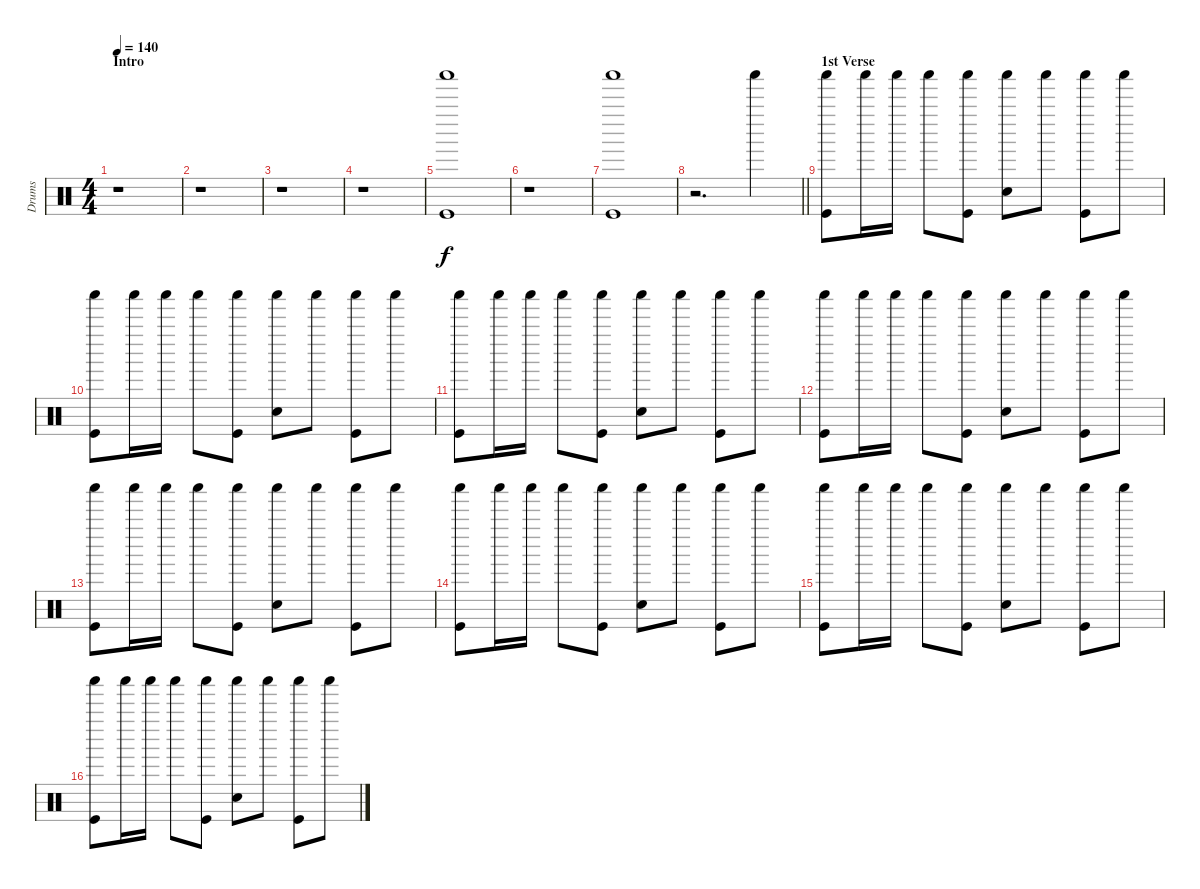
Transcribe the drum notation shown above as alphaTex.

\track ("Drums" "Drums") {instrument percussion}
\staff {score}
\articulation defaults
\ts (4 4)
\section ("" "Intro")
\tempo 140
\clef neutral
\ks c
r.1{dy f} |
r.1 |
r.1 |
r.1 |
("Shaker (hit)" "Kick (hit)").1 |
r.1 |
("Shaker (hit)" "Kick (hit)").1 |
\barLineRight lightlight
r.2{d} "Shaker (hit)".4 |
\section ("" "1st Verse")
("Shaker (hit)" "Kick (hit)").8 "Shaker (hit)".16 "Shaker (hit)".16 "Shaker (hit)".8 ("Shaker (hit)" "Kick (hit)").8 ("Shaker (hit)" "Hand Clap (hit)").8 "Shaker (hit)".8 ("Shaker (hit)" "Kick (hit)").8 "Shaker (hit)".8 |
("Shaker (hit)" "Kick (hit)").8 "Shaker (hit)".16 "Shaker (hit)".16 "Shaker (hit)".8 ("Shaker (hit)" "Kick (hit)").8 ("Shaker (hit)" "Hand Clap (hit)").8 "Shaker (hit)".8 ("Shaker (hit)" "Kick (hit)").8 "Shaker (hit)".8 |
("Shaker (hit)" "Kick (hit)").8 "Shaker (hit)".16 "Shaker (hit)".16 "Shaker (hit)".8 ("Shaker (hit)" "Kick (hit)").8 ("Shaker (hit)" "Hand Clap (hit)").8 "Shaker (hit)".8 ("Shaker (hit)" "Kick (hit)").8 "Shaker (hit)".8 |
("Shaker (hit)" "Kick (hit)").8 "Shaker (hit)".16 "Shaker (hit)".16 "Shaker (hit)".8 ("Shaker (hit)" "Kick (hit)").8 ("Shaker (hit)" "Hand Clap (hit)").8 "Shaker (hit)".8 ("Shaker (hit)" "Kick (hit)").8 "Shaker (hit)".8 |
("Shaker (hit)" "Kick (hit)").8 "Shaker (hit)".16 "Shaker (hit)".16 "Shaker (hit)".8 ("Shaker (hit)" "Kick (hit)").8 ("Shaker (hit)" "Hand Clap (hit)").8 "Shaker (hit)".8 ("Shaker (hit)" "Kick (hit)").8 "Shaker (hit)".8 |
("Shaker (hit)" "Kick (hit)").8 "Shaker (hit)".16 "Shaker (hit)".16 "Shaker (hit)".8 ("Shaker (hit)" "Kick (hit)").8 ("Shaker (hit)" "Hand Clap (hit)").8 "Shaker (hit)".8 ("Shaker (hit)" "Kick (hit)").8 "Shaker (hit)".8 |
("Shaker (hit)" "Kick (hit)").8 "Shaker (hit)".16 "Shaker (hit)".16 "Shaker (hit)".8 ("Shaker (hit)" "Kick (hit)").8 ("Shaker (hit)" "Hand Clap (hit)").8 "Shaker (hit)".8 ("Shaker (hit)" "Kick (hit)").8 "Shaker (hit)".8 |
("Shaker (hit)" "Kick (hit)").8 "Shaker (hit)".16 "Shaker (hit)".16 "Shaker (hit)".8 ("Shaker (hit)" "Kick (hit)").8 ("Shaker (hit)" "Hand Clap (hit)").8 "Shaker (hit)".8 ("Shaker (hit)" "Kick (hit)").8 "Shaker (hit)".8
